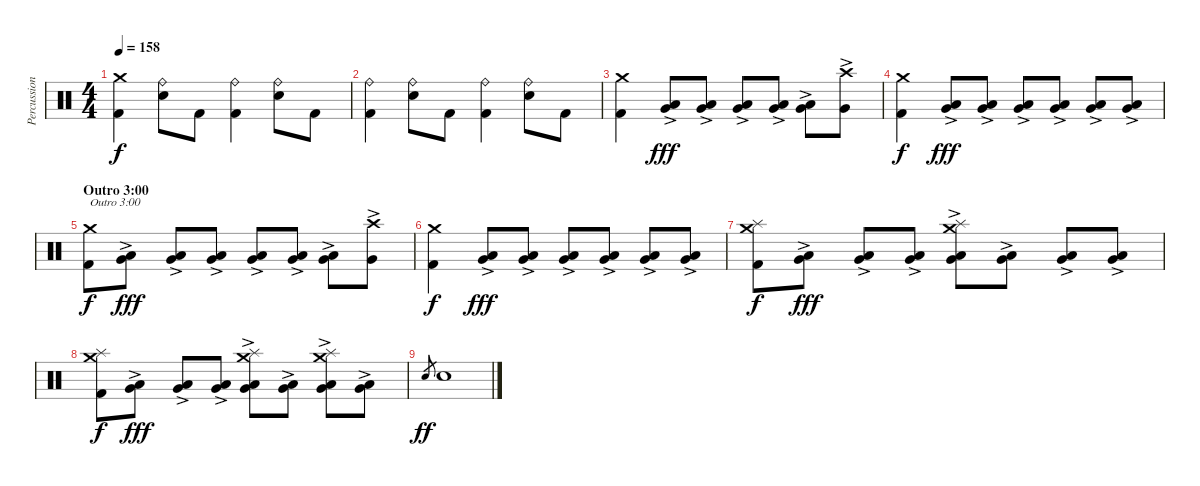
\track ("Percussion" "Percussion") {instrument percussion}
\staff {score}
\articulation defaults
\ts (4 4)
\tempo 158
\clef neutral
\ks c
("Kick (hit) 2" "Crash medium (hit)").4{dy f} ("Electric Snare (hit)" "Ride (bell)").8 "Kick (hit) 2".8 ("Kick (hit) 2" "Ride (bell)").4 ("Electric Snare (hit)" "Ride (bell)").8 "Kick (hit) 2".8 |
("Kick (hit) 2" "Ride (bell)").4 ("Electric Snare (hit)" "Ride (bell)").8 "Kick (hit) 2".8 ("Kick (hit) 2" "Ride (bell)").4 ("Electric Snare (hit)" "Ride (bell)").8 "Kick (hit) 2".8 |
("Kick (hit) 2" "Crash medium (hit)").4 ("Low Tom (hit)"{ac} "Very Low Tom (hit)"{ac}).8{dy fff} ("Low Tom (hit)"{ac} "Very Low Tom (hit)"{ac}).8 ("Low Tom (hit)"{ac} "Very Low Tom (hit)"{ac}).8 ("Low Tom (hit)"{ac} "Very Low Tom (hit)"{ac}).8 ("Low Tom (hit)"{ac} "Very Low Tom (hit)"{ac}).8 ("Very Low Tom (hit)"{ac} "Crash high (hit)").8 |
("Kick (hit) 2" "Crash medium (hit)").4{dy f} ("Low Tom (hit)"{ac} "Very Low Tom (hit)"{ac}).8{dy fff} ("Low Tom (hit)"{ac} "Very Low Tom (hit)"{ac}).8 ("Low Tom (hit)"{ac} "Very Low Tom (hit)"{ac}).8 ("Low Tom (hit)"{ac} "Very Low Tom (hit)"{ac}).8 ("Low Tom (hit)"{ac} "Very Low Tom (hit)"{ac}).8 ("Low Tom (hit)"{ac} "Very Low Tom (hit)"{ac}).8 |
\section ("" "Outro 3:00")
("Kick (hit) 2" "Crash medium (hit)").8{txt "Outro 3:00" dy f} ("Low Tom (hit)"{ac} "Very Low Tom (hit)"{ac}).8{dy fff} ("Low Tom (hit)"{ac} "Very Low Tom (hit)"{ac}).8 ("Low Tom (hit)"{ac} "Very Low Tom (hit)"{ac}).8 ("Low Tom (hit)"{ac} "Very Low Tom (hit)"{ac}).8 ("Low Tom (hit)"{ac} "Very Low Tom (hit)"{ac}).8 ("Low Tom (hit)"{ac} "Very Low Tom (hit)"{ac}).8 ("Very Low Tom (hit)"{ac} "Crash high (hit)").8 |
("Kick (hit) 2" "Crash medium (hit)").4{dy f} ("Low Tom (hit)"{ac} "Very Low Tom (hit)"{ac}).8{dy fff} ("Low Tom (hit)"{ac} "Very Low Tom (hit)"{ac}).8 ("Low Tom (hit)"{ac} "Very Low Tom (hit)"{ac}).8 ("Low Tom (hit)"{ac} "Very Low Tom (hit)"{ac}).8 ("Low Tom (hit)"{ac} "Very Low Tom (hit)"{ac}).8 ("Low Tom (hit)"{ac} "Very Low Tom (hit)"{ac}).8 |
("Kick (hit) 2" "Splash (hit)" "Crash medium (hit)").8{dy f} ("Low Tom (hit)"{ac} "Very Low Tom (hit)"{ac}).8{dy fff} ("Low Tom (hit)"{ac} "Very Low Tom (hit)"{ac}).8 ("Low Tom (hit)"{ac} "Very Low Tom (hit)"{ac}).8 ("Low Tom (hit)"{ac} "Very Low Tom (hit)"{ac} "Splash (hit)" "Crash medium (hit)").8 ("Low Tom (hit)"{ac} "Very Low Tom (hit)"{ac}).8 ("Low Tom (hit)"{ac} "Very Low Tom (hit)"{ac}).8 ("Low Tom (hit)"{ac} "Very Low Tom (hit)"{ac}).8 |
("Kick (hit) 2" "Splash (hit)" "Crash medium (hit)").8{dy f} ("Low Tom (hit)"{ac} "Very Low Tom (hit)"{ac}).8{dy fff} ("Low Tom (hit)"{ac} "Very Low Tom (hit)"{ac}).8 ("Low Tom (hit)"{ac} "Very Low Tom (hit)"{ac}).8 ("Low Tom (hit)"{ac} "Very Low Tom (hit)"{ac} "Splash (hit)" "Crash medium (hit)").8 ("Low Tom (hit)"{ac} "Very Low Tom (hit)"{ac}).8 ("Low Tom (hit)"{ac} "Very Low Tom (hit)"{ac} "Splash (hit)" "Crash medium (hit)").8 ("Low Tom (hit)"{ac} "Very Low Tom (hit)"{ac}).8 |
"Electric Snare (hit)".8{gr dy ff} "Electric Snare (hit)".1
